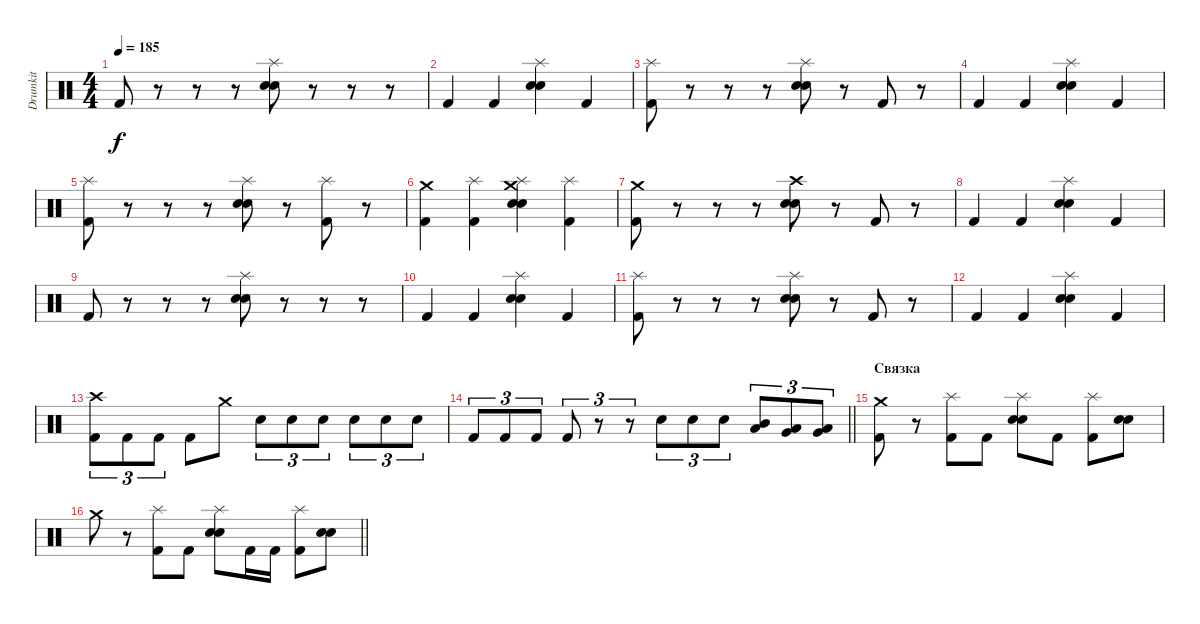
\track ("Drumkit" "Drumkit") {instrument percussion}
\staff {score}
\articulation defaults
\ts (4 4)
\tempo 185
\clef neutral
\ks c "Kick (hit) 2".8{dy f}
r.8 r.8 r.8 ("Splash (hit)" "Electric Snare (hit)" "Snare (hit) 2").8 r.8 r.8 r.8 |
"Kick (hit) 2".4 "Kick (hit) 2".4 ("Splash (hit)" "Electric Snare (hit)" "Snare (hit) 2").4 "Kick (hit) 2".4 |
("Splash (hit)" "Kick (hit) 2").8 r.8 r.8 r.8 ("Splash (hit)" "Electric Snare (hit)" "Snare (hit) 2").8 r.8 "Kick (hit) 2".8 r.8 |
"Kick (hit) 2".4 "Kick (hit) 2".4 ("Splash (hit)" "Electric Snare (hit)" "Snare (hit) 2").4 "Kick (hit) 2".4 |
("Splash (hit)" "Kick (hit) 2").8 r.8 r.8 r.8 ("Splash (hit)" "Electric Snare (hit)" "Snare (hit) 2").8 r.8 ("Splash (hit)" "Kick (hit) 2").8 r.8 |
("Crash medium (hit)" "Kick (hit) 2").4 ("Splash (hit)" "Kick (hit) 2").4 ("Crash medium (hit)" "Splash (hit)" "Electric Snare (hit)" "Snare (hit) 2").4 ("Splash (hit)" "Kick (hit) 2").4 |
("Crash medium (hit)" "Kick (hit) 2").8 r.8 r.8 r.8 ("Crash high (hit)" "Electric Snare (hit)" "Snare (hit) 2").8 r.8 "Kick (hit) 2".8 r.8 |
"Kick (hit) 2".4 "Kick (hit) 2".4 ("Splash (hit)" "Electric Snare (hit)" "Snare (hit) 2").4 "Kick (hit) 2".4 |
"Kick (hit) 2".8 r.8 r.8 r.8 ("Splash (hit)" "Electric Snare (hit)" "Snare (hit) 2").8 r.8 r.8 r.8 |
"Kick (hit) 2".4 "Kick (hit) 2".4 ("Splash (hit)" "Electric Snare (hit)" "Snare (hit) 2").4 "Kick (hit) 2".4 |
("Splash (hit)" "Kick (hit) 2").8 r.8 r.8 r.8 ("Splash (hit)" "Electric Snare (hit)" "Snare (hit) 2").8 r.8 "Kick (hit) 2".8 r.8 |
"Kick (hit) 2".4 "Kick (hit) 2".4 ("Splash (hit)" "Electric Snare (hit)" "Snare (hit) 2").4 "Kick (hit) 2".4 |
("Crash high (hit)" "Kick (hit) 2").8{tu (3 2)} "Kick (hit) 2".8{tu (3 2)} "Kick (hit) 2".8{tu (3 2)} "Kick (hit) 2".8 "Crash medium (hit)".8 "Electric Snare (hit)".8{tu (3 2)} "Electric Snare (hit)".8{tu (3 2)} "Electric Snare (hit)".8{tu (3 2)} "Electric Snare (hit)".8{tu (3 2)} "Electric Snare (hit)".8{tu (3 2)} "Electric Snare (hit)".8{tu (3 2)} |
\barLineRight lightlight "Kick (hit) 2".8{tu (3 2)} "Kick (hit) 2".8{tu (3 2)} "Kick (hit) 2".8{tu (3 2)} "Kick (hit) 2".8{tu (3 2)}
r.8{tu (3 2)} r.8{tu (3 2)} "Electric Snare (hit)".8{tu (3 2)} "Electric Snare (hit)".8{tu (3 2)} "Electric Snare (hit)".8{tu (3 2)} ("Mid Tom (hit)" "Low Tom (hit)").8{tu (3 2)} ("Low Tom (hit)" "Very Low Tom (hit)").8{tu (3 2)} ("Very Low Tom (hit)" "Low Floor Tom (hit)").8{tu (3 2)} |
\section ("" "Связка")
("Crash medium (hit)" "Kick (hit) 2").8 r.8 ("Splash (hit)" "Kick (hit) 2").8 "Kick (hit) 2".8 ("Splash (hit)" "Electric Snare (hit)" "Snare (hit) 2").8 "Kick (hit) 2".8 ("Splash (hit)" "Kick (hit) 2").8 ("Electric Snare (hit)" "Snare (hit) 2").8 |
\barLineRight lightlight "Crash medium (hit)".8
r.8 ("Splash (hit)" "Kick (hit) 2").8 "Kick (hit) 2".8 ("Splash (hit)" "Electric Snare (hit)" "Snare (hit) 2").8 "Kick (hit) 2".16 "Kick (hit) 2".16 ("Splash (hit)" "Kick (hit) 2").8 ("Electric Snare (hit)" "Snare (hit) 2").8
